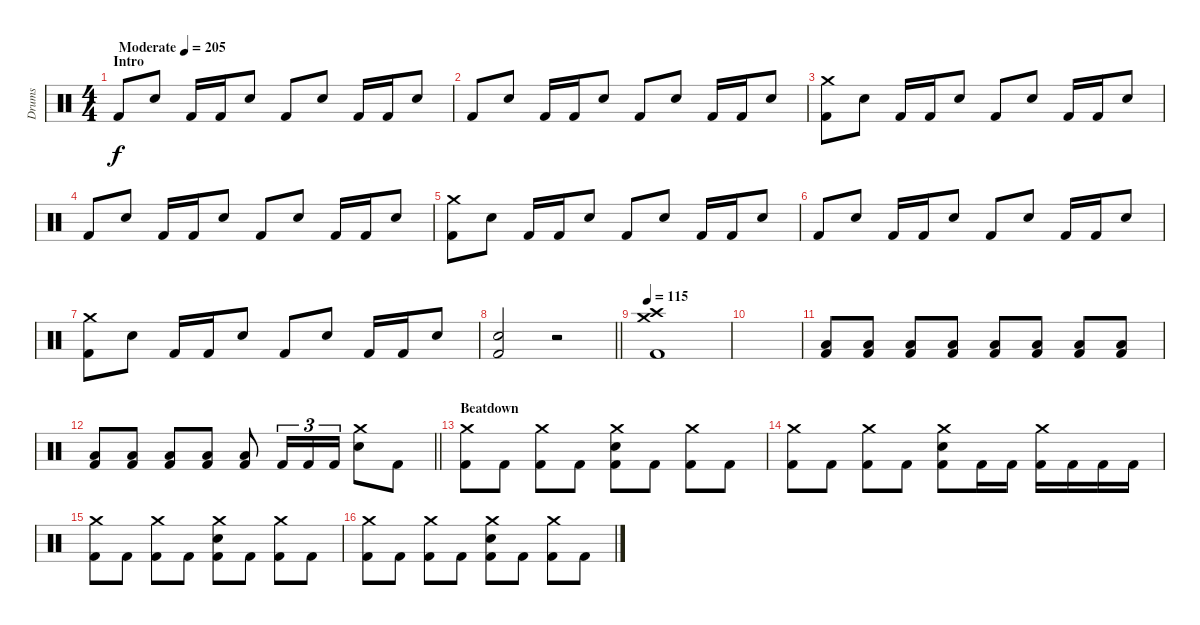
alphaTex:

\track ("Drums" "Drums") {instrument percussion}
\staff {score}
\articulation defaults
\ts (4 4)
\section ("" "Intro")
\tempo (205 "Moderate")
\clef neutral
\ks c "Kick (hit) 2".8{dy f} "Electric Snare (hit)".8 "Kick (hit) 2".16 "Kick (hit) 2".16 "Electric Snare (hit)".8 "Kick (hit) 2".8 "Electric Snare (hit)".8 "Kick (hit) 2".16 "Kick (hit) 2".16 "Electric Snare (hit)".8
|
"Kick (hit) 2".8 "Electric Snare (hit)".8 "Kick (hit) 2".16 "Kick (hit) 2".16 "Electric Snare (hit)".8 "Kick (hit) 2".8 "Electric Snare (hit)".8 "Kick (hit) 2".16 "Kick (hit) 2".16 "Electric Snare (hit)".8 |
("Crash medium (hit)" "Kick (hit) 2").8 "Electric Snare (hit)".8 "Kick (hit) 2".16 "Kick (hit) 2".16 "Electric Snare (hit)".8 "Kick (hit) 2".8 "Electric Snare (hit)".8 "Kick (hit) 2".16 "Kick (hit) 2".16 "Electric Snare (hit)".8 |
"Kick (hit) 2".8 "Electric Snare (hit)".8 "Kick (hit) 2".16 "Kick (hit) 2".16 "Electric Snare (hit)".8 "Kick (hit) 2".8 "Electric Snare (hit)".8 "Kick (hit) 2".16 "Kick (hit) 2".16 "Electric Snare (hit)".8 |
("Crash medium (hit)" "Kick (hit) 2").8 "Electric Snare (hit)".8 "Kick (hit) 2".16 "Kick (hit) 2".16 "Electric Snare (hit)".8 "Kick (hit) 2".8 "Electric Snare (hit)".8 "Kick (hit) 2".16 "Kick (hit) 2".16 "Electric Snare (hit)".8 |
"Kick (hit) 2".8 "Electric Snare (hit)".8 "Kick (hit) 2".16 "Kick (hit) 2".16 "Electric Snare (hit)".8 "Kick (hit) 2".8 "Electric Snare (hit)".8 "Kick (hit) 2".16 "Kick (hit) 2".16 "Electric Snare (hit)".8 |
("Crash medium (hit)" "Kick (hit) 2").8 "Electric Snare (hit)".8 "Kick (hit) 2".16 "Kick (hit) 2".16 "Electric Snare (hit)".8 "Kick (hit) 2".8 "Electric Snare (hit)".8 "Kick (hit) 2".16 "Kick (hit) 2".16 "Electric Snare (hit)".8 |
\barLineRight lightlight
("Electric Snare (hit)" "Kick (hit) 2").2 r.2 |
\tempo 115
("Crash medium (hit)" "Crash high (hit)" "Kick (hit) 2").1 |
|
("Low Floor Tom (hit)" "Kick (hit) 2").8{volume 16} ("Low Floor Tom (hit)" "Kick (hit) 2").8 ("Low Floor Tom (hit)" "Kick (hit) 2").8 ("Low Floor Tom (hit)" "Kick (hit) 2").8 ("Low Floor Tom (hit)" "Kick (hit) 2").8 ("Low Floor Tom (hit)" "Kick (hit) 2").8 ("Low Floor Tom (hit)" "Kick (hit) 2").8 ("Low Floor Tom (hit)" "Kick (hit) 2").8 |
\barLineRight lightlight
("Low Floor Tom (hit)" "Kick (hit) 2").8 ("Low Floor Tom (hit)" "Kick (hit) 2").8 ("Low Floor Tom (hit)" "Kick (hit) 2").8 ("Low Floor Tom (hit)" "Kick (hit) 2").8 ("Low Floor Tom (hit)" "Kick (hit) 2").8 "Kick (hit) 2".16{tu (3 2)} "Kick (hit) 2".16{tu (3 2)} "Kick (hit) 2".16{tu (3 2)} ("Crash medium (hit)" "Electric Snare (hit)").8 "Kick (hit) 2".8 |
\section ("" "Beatdown")
("Crash medium (hit)" "Kick (hit) 2").8 "Kick (hit) 2".8 ("Crash medium (hit)" "Kick (hit) 2").8 "Kick (hit) 2".8 ("Crash medium (hit)" "Electric Snare (hit)" "Kick (hit) 2").8 "Kick (hit) 2".8 ("Crash medium (hit)" "Kick (hit) 2").8 "Kick (hit) 2".8 |
("Crash medium (hit)" "Kick (hit) 2").8 "Kick (hit) 2".8 ("Crash medium (hit)" "Kick (hit) 2").8 "Kick (hit) 2".8 ("Crash medium (hit)" "Electric Snare (hit)" "Kick (hit) 2").8 "Kick (hit) 2".16 "Kick (hit) 2".16 ("Crash medium (hit)" "Kick (hit) 2").16 "Kick (hit) 2".16 "Kick (hit) 2".16 "Kick (hit) 2".16 |
("Crash medium (hit)" "Kick (hit) 2").8 "Kick (hit) 2".8 ("Crash medium (hit)" "Kick (hit) 2").8 "Kick (hit) 2".8 ("Crash medium (hit)" "Electric Snare (hit)" "Kick (hit) 2").8 "Kick (hit) 2".8 ("Crash medium (hit)" "Kick (hit) 2").8 "Kick (hit) 2".8 |
("Crash medium (hit)" "Kick (hit) 2").8 "Kick (hit) 2".8 ("Crash medium (hit)" "Kick (hit) 2").8 "Kick (hit) 2".8 ("Crash medium (hit)" "Electric Snare (hit)" "Kick (hit) 2").8 "Kick (hit) 2".8 ("Crash medium (hit)" "Kick (hit) 2").8 "Kick (hit) 2".8
